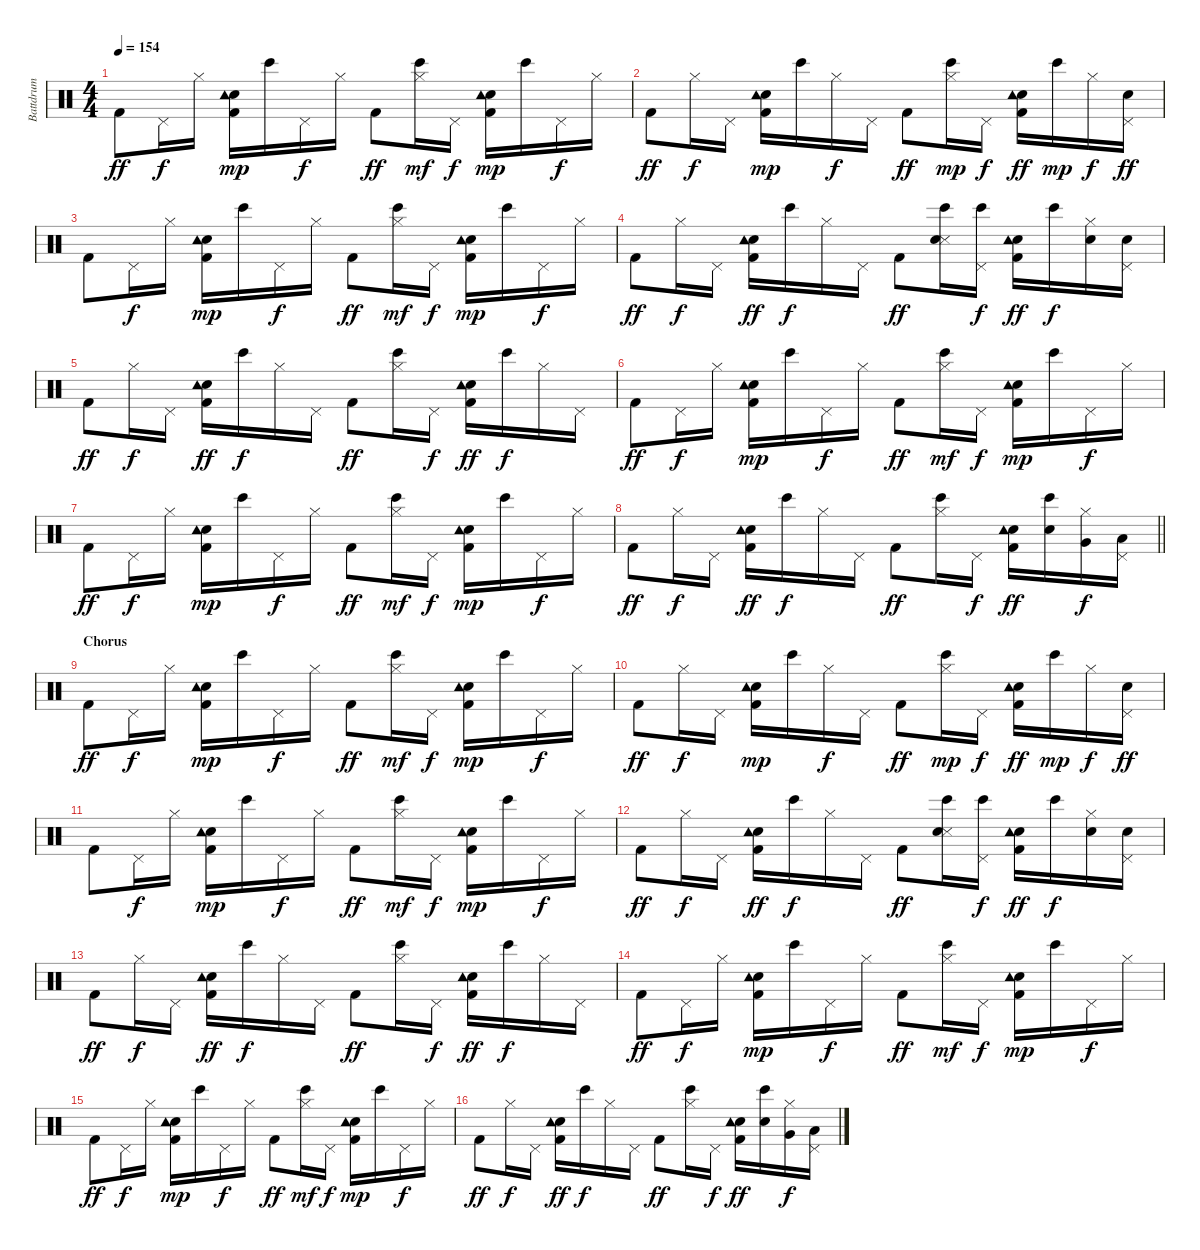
\track ("Battdrum" "Battdrum") {instrument percussion}
\staff {score}
\articulation defaults
\ts (4 4)
\tempo 154
\clef neutral
\ks c "Kick (hit) 2".8{dy ff} "Pedal Hi-Hat (hit)".16{dy f} "Hi-Hat (closed)".16
("Kick (hit) 2" "Electric Snare (hit)" "Tambourine (hit)").16{dy mp} "Bongo High (hit)".16 "Pedal Hi-Hat (hit)".16{dy f} "Hi-Hat (closed)".16 "Kick (hit) 2".8{dy ff} ("Bongo High (hit)" "Hi-Hat (closed)").16{dy mf} "Pedal Hi-Hat (hit)".16{dy f} ("Kick (hit) 2" "Electric Snare (hit)" "Tambourine (hit)").16{dy mp} "Bongo High (hit)".16 "Pedal Hi-Hat (hit)".16{dy f} "Hi-Hat (closed)".16 |
"Kick (hit) 2".8{dy ff} "Hi-Hat (closed)".16{dy f} "Pedal Hi-Hat (hit)".16 ("Kick (hit) 2" "Electric Snare (hit)" "Tambourine (hit)").16{dy mp} "Bongo High (hit)".16 "Hi-Hat (closed)".16{dy f} "Pedal Hi-Hat (hit)".16 "Kick (hit) 2".8{dy ff} ("Bongo High (hit)" "Hi-Hat (closed)").16{dy mp} "Pedal Hi-Hat (hit)".16{dy f} ("Kick (hit) 2" "Electric Snare (hit)" "Tambourine (hit)").16{dy ff} "Bongo High (hit)".16{dy mp} "Hi-Hat (closed)".16{dy f} ("Electric Snare (hit)" "Pedal Hi-Hat (hit)").16{dy ff} |
"Kick (hit) 2".8 "Pedal Hi-Hat (hit)".16{dy f} "Hi-Hat (closed)".16 ("Kick (hit) 2" "Electric Snare (hit)" "Tambourine (hit)").16{dy mp} "Bongo High (hit)".16 "Pedal Hi-Hat (hit)".16{dy f} "Hi-Hat (closed)".16 "Kick (hit) 2".8{dy ff} ("Bongo High (hit)" "Hi-Hat (closed)").16{dy mf} "Pedal Hi-Hat (hit)".16{dy f} ("Kick (hit) 2" "Electric Snare (hit)" "Tambourine (hit)").16{dy mp} "Bongo High (hit)".16 "Pedal Hi-Hat (hit)".16{dy f} "Hi-Hat (closed)".16 |
"Kick (hit) 2".8{dy ff} "Hi-Hat (closed)".16{dy f} "Pedal Hi-Hat (hit)".16 ("Kick (hit) 2" "Electric Snare (hit)" "Tambourine (hit)").16{dy ff} "Bongo High (hit)".16{dy f} "Hi-Hat (closed)".16 "Pedal Hi-Hat (hit)".16 "Kick (hit) 2".8{dy ff} ("Snare (side stick) 3" "Electric Snare (hit)" "Bongo High (hit)").16 ("Bongo High (hit)" "Pedal Hi-Hat (hit)").16{dy f} ("Kick (hit) 2" "Electric Snare (hit)" "Tambourine (hit)").16{dy ff} "Bongo High (hit)".16{dy f} ("Electric Snare (hit)" "Hi-Hat (closed)").16 ("Electric Snare (hit)" "Pedal Hi-Hat (hit)").16 |
"Kick (hit) 2".8{dy ff} "Hi-Hat (closed)".16{dy f} "Pedal Hi-Hat (hit)".16 ("Kick (hit) 2" "Electric Snare (hit)" "Tambourine (hit)").16{dy ff} "Bongo High (hit)".16{dy f} "Hi-Hat (closed)".16 "Pedal Hi-Hat (hit)".16 "Kick (hit) 2".8{dy ff} ("Bongo High (hit)" "Hi-Hat (closed)").16 "Pedal Hi-Hat (hit)".16{dy f} ("Kick (hit) 2" "Electric Snare (hit)" "Tambourine (hit)").16{dy ff} "Bongo High (hit)".16{dy f} "Hi-Hat (closed)".16 "Pedal Hi-Hat (hit)".16 |
"Kick (hit) 2".8{dy ff} "Pedal Hi-Hat (hit)".16{dy f} "Hi-Hat (closed)".16 ("Kick (hit) 2" "Electric Snare (hit)" "Tambourine (hit)").16{dy mp} "Bongo High (hit)".16 "Pedal Hi-Hat (hit)".16{dy f} "Hi-Hat (closed)".16 "Kick (hit) 2".8{dy ff} ("Bongo High (hit)" "Hi-Hat (closed)").16{dy mf} "Pedal Hi-Hat (hit)".16{dy f} ("Kick (hit) 2" "Electric Snare (hit)" "Tambourine (hit)").16{dy mp} "Bongo High (hit)".16 "Pedal Hi-Hat (hit)".16{dy f} "Hi-Hat (closed)".16 |
"Kick (hit) 2".8{dy ff} "Pedal Hi-Hat (hit)".16{dy f} "Hi-Hat (closed)".16 ("Kick (hit) 2" "Electric Snare (hit)" "Tambourine (hit)").16{dy mp} "Bongo High (hit)".16 "Pedal Hi-Hat (hit)".16{dy f} "Hi-Hat (closed)".16 "Kick (hit) 2".8{dy ff} ("Bongo High (hit)" "Hi-Hat (closed)").16{dy mf} "Pedal Hi-Hat (hit)".16{dy f} ("Kick (hit) 2" "Electric Snare (hit)" "Tambourine (hit)").16{dy mp} "Bongo High (hit)".16 "Pedal Hi-Hat (hit)".16{dy f} "Hi-Hat (closed)".16 |
\barLineRight lightlight "Kick (hit) 2".8{dy ff} "Hi-Hat (closed)".16{dy f} "Pedal Hi-Hat (hit)".16
("Kick (hit) 2" "Electric Snare (hit)" "Tambourine (hit)").16{dy ff} "Bongo High (hit)".16{dy f} "Hi-Hat (closed)".16 "Pedal Hi-Hat (hit)".16 "Kick (hit) 2".8{dy ff} ("Bongo High (hit)" "Hi-Hat (closed)").16 "Pedal Hi-Hat (hit)".16{dy f} ("Kick (hit) 2" "Electric Snare (hit)" "Tambourine (hit)").16{dy ff} ("Electric Snare (hit)" "Bongo High (hit)").16 ("Hi-Hat (closed)" "Very Low Tom (hit)").16{dy f} ("Pedal Hi-Hat (hit)" "Low Tom (hit)").16 |
\section ("" "Chorus")
"Kick (hit) 2".8{dy ff} "Pedal Hi-Hat (hit)".16{dy f} "Hi-Hat (closed)".16 ("Kick (hit) 2" "Electric Snare (hit)" "Tambourine (hit)").16{dy mp} "Bongo High (hit)".16 "Pedal Hi-Hat (hit)".16{dy f} "Hi-Hat (closed)".16 "Kick (hit) 2".8{dy ff} ("Bongo High (hit)" "Hi-Hat (closed)").16{dy mf} "Pedal Hi-Hat (hit)".16{dy f} ("Kick (hit) 2" "Electric Snare (hit)" "Tambourine (hit)").16{dy mp} "Bongo High (hit)".16 "Pedal Hi-Hat (hit)".16{dy f} "Hi-Hat (closed)".16 |
"Kick (hit) 2".8{dy ff} "Hi-Hat (closed)".16{dy f} "Pedal Hi-Hat (hit)".16 ("Kick (hit) 2" "Electric Snare (hit)" "Tambourine (hit)").16{dy mp} "Bongo High (hit)".16 "Hi-Hat (closed)".16{dy f} "Pedal Hi-Hat (hit)".16 "Kick (hit) 2".8{dy ff} ("Bongo High (hit)" "Hi-Hat (closed)").16{dy mp} "Pedal Hi-Hat (hit)".16{dy f} ("Kick (hit) 2" "Electric Snare (hit)" "Tambourine (hit)").16{dy ff} "Bongo High (hit)".16{dy mp} "Hi-Hat (closed)".16{dy f} ("Electric Snare (hit)" "Pedal Hi-Hat (hit)").16{dy ff} |
"Kick (hit) 2".8 "Pedal Hi-Hat (hit)".16{dy f} "Hi-Hat (closed)".16 ("Kick (hit) 2" "Electric Snare (hit)" "Tambourine (hit)").16{dy mp} "Bongo High (hit)".16 "Pedal Hi-Hat (hit)".16{dy f} "Hi-Hat (closed)".16 "Kick (hit) 2".8{dy ff} ("Bongo High (hit)" "Hi-Hat (closed)").16{dy mf} "Pedal Hi-Hat (hit)".16{dy f} ("Kick (hit) 2" "Electric Snare (hit)" "Tambourine (hit)").16{dy mp} "Bongo High (hit)".16 "Pedal Hi-Hat (hit)".16{dy f} "Hi-Hat (closed)".16 |
"Kick (hit) 2".8{dy ff} "Hi-Hat (closed)".16{dy f} "Pedal Hi-Hat (hit)".16 ("Kick (hit) 2" "Electric Snare (hit)" "Tambourine (hit)").16{dy ff} "Bongo High (hit)".16{dy f} "Hi-Hat (closed)".16 "Pedal Hi-Hat (hit)".16 "Kick (hit) 2".8{dy ff} ("Snare (side stick) 3" "Electric Snare (hit)" "Bongo High (hit)").16 ("Bongo High (hit)" "Pedal Hi-Hat (hit)").16{dy f} ("Kick (hit) 2" "Electric Snare (hit)" "Tambourine (hit)").16{dy ff} "Bongo High (hit)".16{dy f} ("Electric Snare (hit)" "Hi-Hat (closed)").16 ("Electric Snare (hit)" "Pedal Hi-Hat (hit)").16 |
"Kick (hit) 2".8{dy ff} "Hi-Hat (closed)".16{dy f} "Pedal Hi-Hat (hit)".16 ("Kick (hit) 2" "Electric Snare (hit)" "Tambourine (hit)").16{dy ff} "Bongo High (hit)".16{dy f} "Hi-Hat (closed)".16 "Pedal Hi-Hat (hit)".16 "Kick (hit) 2".8{dy ff} ("Bongo High (hit)" "Hi-Hat (closed)").16 "Pedal Hi-Hat (hit)".16{dy f} ("Kick (hit) 2" "Electric Snare (hit)" "Tambourine (hit)").16{dy ff} "Bongo High (hit)".16{dy f} "Hi-Hat (closed)".16 "Pedal Hi-Hat (hit)".16 |
"Kick (hit) 2".8{dy ff} "Pedal Hi-Hat (hit)".16{dy f} "Hi-Hat (closed)".16 ("Kick (hit) 2" "Electric Snare (hit)" "Tambourine (hit)").16{dy mp} "Bongo High (hit)".16 "Pedal Hi-Hat (hit)".16{dy f} "Hi-Hat (closed)".16 "Kick (hit) 2".8{dy ff} ("Bongo High (hit)" "Hi-Hat (closed)").16{dy mf} "Pedal Hi-Hat (hit)".16{dy f} ("Kick (hit) 2" "Electric Snare (hit)" "Tambourine (hit)").16{dy mp} "Bongo High (hit)".16 "Pedal Hi-Hat (hit)".16{dy f} "Hi-Hat (closed)".16 |
"Kick (hit) 2".8{dy ff} "Pedal Hi-Hat (hit)".16{dy f} "Hi-Hat (closed)".16 ("Kick (hit) 2" "Electric Snare (hit)" "Tambourine (hit)").16{dy mp} "Bongo High (hit)".16 "Pedal Hi-Hat (hit)".16{dy f} "Hi-Hat (closed)".16 "Kick (hit) 2".8{dy ff} ("Bongo High (hit)" "Hi-Hat (closed)").16{dy mf} "Pedal Hi-Hat (hit)".16{dy f} ("Kick (hit) 2" "Electric Snare (hit)" "Tambourine (hit)").16{dy mp} "Bongo High (hit)".16 "Pedal Hi-Hat (hit)".16{dy f} "Hi-Hat (closed)".16 |
"Kick (hit) 2".8{dy ff} "Hi-Hat (closed)".16{dy f} "Pedal Hi-Hat (hit)".16 ("Kick (hit) 2" "Electric Snare (hit)" "Tambourine (hit)").16{dy ff} "Bongo High (hit)".16{dy f} "Hi-Hat (closed)".16 "Pedal Hi-Hat (hit)".16 "Kick (hit) 2".8{dy ff} ("Bongo High (hit)" "Hi-Hat (closed)").16 "Pedal Hi-Hat (hit)".16{dy f} ("Kick (hit) 2" "Electric Snare (hit)" "Tambourine (hit)").16{dy ff} ("Electric Snare (hit)" "Bongo High (hit)").16 ("Hi-Hat (closed)" "Very Low Tom (hit)").16{dy f} ("Pedal Hi-Hat (hit)" "Low Tom (hit)").16
